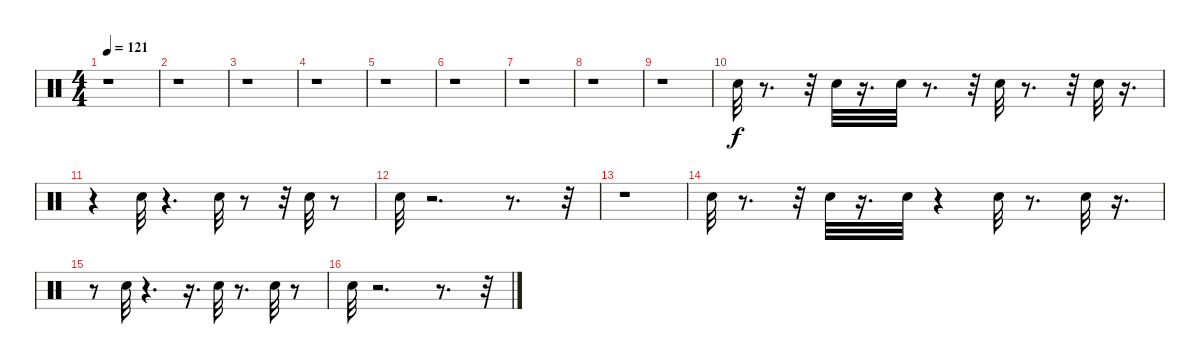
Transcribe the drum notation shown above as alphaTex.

\track "" {instrument percussion}
\staff {score}
\articulation defaults
\ts (4 4)
\tempo 121
\clef neutral
\ks c
r.1{dy f} |
r.1 |
r.1 |
r.1 |
r.1 |
r.1 |
r.1 |
r.1 |
r.1 |
"Snare (hit)".32 r.8{d} r.32 "Snare (hit)".32 r.16{d} "Snare (hit)".32 r.8{d} r.32 "Snare (hit)".32 r.8{d} r.32 "Snare (hit)".32 r.16{d} |
r.4 "Snare (hit)".32 r.4{d} "Snare (hit)".32 r.8 r.32 "Snare (hit)".32 r.8 |
"Snare (hit)".32 r.2{d} r.8{d} r.32 |
r.1 |
"Snare (hit)".32 r.8{d} r.32 "Snare (hit)".32 r.16{d} "Snare (hit)".32 r.4 "Snare (hit)".32 r.8{d} "Snare (hit)".32 r.16{d} |
r.8 "Snare (hit)".32 r.4{d} r.16{d} "Snare (hit)".32 r.8{d} "Snare (hit)".32 r.8 |
"Snare (hit)".32 r.2{d} r.8{d} r.32
